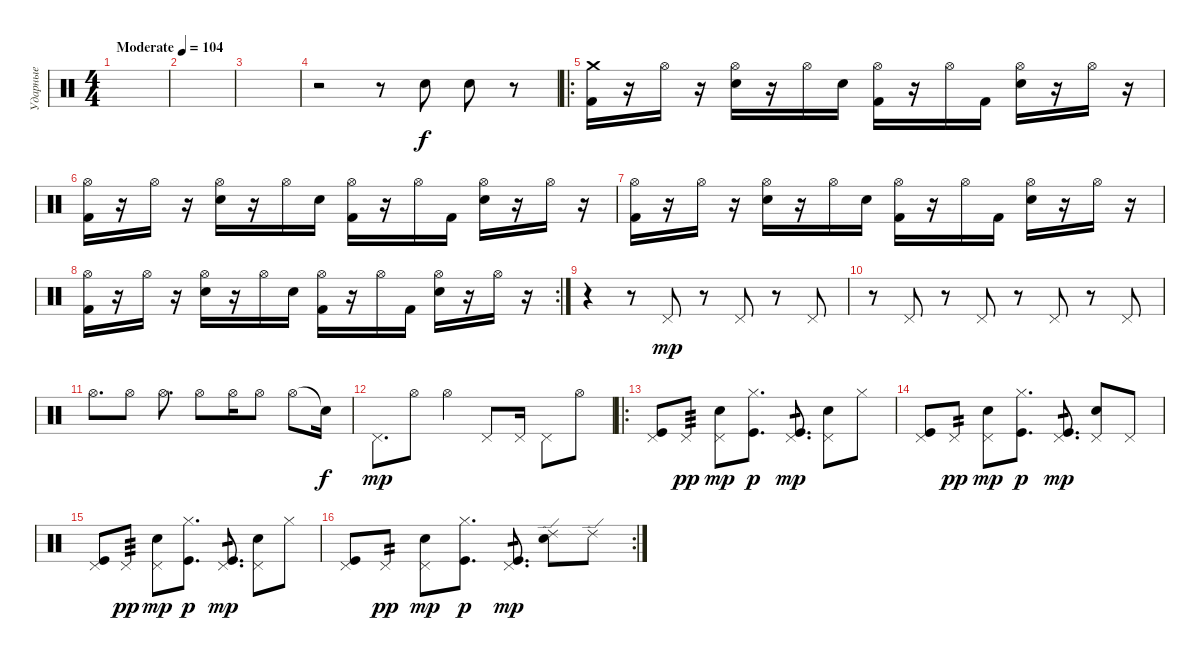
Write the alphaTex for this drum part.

\track ("Ударные" "Ударные") {instrument percussion}
\staff {score}
\articulation defaults
\ts (4 4)
\tempo (104 "Moderate")
\clef neutral
\ks c
|
|
|
r.2 r.8 "Electric Snare (hit)".8 "Electric Snare (hit)".8 r.8 |
\ro
("Crash medium (hit)" "Kick (hit) 2").16 r.16 "Hi-Hat (open)".16 r.16 ("Hi-Hat (open)" "Electric Snare (hit)").16 r.16 "Hi-Hat (open)".16 "Electric Snare (hit)".16 ("Hi-Hat (open)" "Kick (hit) 2").16 r.16 "Hi-Hat (open)".16 "Kick (hit) 2".16 ("Hi-Hat (open)" "Electric Snare (hit)").16 r.16 "Hi-Hat (open)".16 r.16 |
("Hi-Hat (open)" "Kick (hit) 2").16 r.16 "Hi-Hat (open)".16 r.16 ("Hi-Hat (open)" "Electric Snare (hit)").16 r.16 "Hi-Hat (open)".16 "Electric Snare (hit)".16 ("Hi-Hat (open)" "Kick (hit) 2").16 r.16 "Hi-Hat (open)".16 "Kick (hit) 2".16 ("Hi-Hat (open)" "Electric Snare (hit)").16 r.16 "Hi-Hat (open)".16 r.16 |
("Hi-Hat (open)" "Kick (hit) 2").16 r.16 "Hi-Hat (open)".16 r.16 ("Hi-Hat (open)" "Electric Snare (hit)").16 r.16 "Hi-Hat (open)".16 "Electric Snare (hit)".16 ("Hi-Hat (open)" "Kick (hit) 2").16 r.16 "Hi-Hat (open)".16 "Kick (hit) 2".16 ("Hi-Hat (open)" "Electric Snare (hit)").16 r.16 "Hi-Hat (open)".16 r.16 |
\rc 2
("Hi-Hat (open)" "Kick (hit) 2").16 r.16 "Hi-Hat (open)".16 r.16 ("Hi-Hat (open)" "Electric Snare (hit)").16 r.16 "Hi-Hat (open)".16 "Electric Snare (hit)".16 ("Hi-Hat (open)" "Kick (hit) 2").16 r.16 "Hi-Hat (open)".16 "Kick (hit) 2".16 ("Hi-Hat (open)" "Electric Snare (hit)").16 r.16 "Hi-Hat (open)".16 r.16 |
r.4 r.8 "Pedal Hi-Hat (hit)".8{dy mp} r.8 "Pedal Hi-Hat (hit)".8 r.8 "Pedal Hi-Hat (hit)".8 |
r.8 "Pedal Hi-Hat (hit)".8 r.8 "Pedal Hi-Hat (hit)".8 r.8 "Pedal Hi-Hat (hit)".8 r.8 "Pedal Hi-Hat (hit)".8 |
"Hi-Hat (open)".8{d} "Hi-Hat (open)".8 "Hi-Hat (open)".8{d} "Hi-Hat (open)".8 "Hi-Hat (open)".16 "Hi-Hat (open)".8 "Hi-Hat (open)".8 "Snare (hit)"{t}.16{dy f} |
"Pedal Hi-Hat (hit)".8{d dy mp} "Hi-Hat (open)".8 "Hi-Hat (open)".4 "Pedal Hi-Hat (hit)".8 "Pedal Hi-Hat (hit)".16 "Pedal Hi-Hat (hit)".8 "Hi-Hat (open)".8 |
\ro
("Pedal Hi-Hat (hit)" "Kick (hit)").8 "Pedal Hi-Hat (hit)".8{tp 3 dy pp} ("Pedal Hi-Hat (hit)" "Electric Snare (hit)").8{dy mp} ("Hi-Hat (closed)" "Kick (hit)").8{d dy p} ("Pedal Hi-Hat (hit)" "Kick (hit)").8{d tp 1 dy mp} ("Pedal Hi-Hat (hit)" "Electric Snare (hit)").8 "Hi-Hat (closed)".8 |
("Pedal Hi-Hat (hit)" "Kick (hit)").8 "Pedal Hi-Hat (hit)".8{tp 2 dy pp} ("Pedal Hi-Hat (hit)" "Electric Snare (hit)").8{dy mp} ("Hi-Hat (closed)" "Kick (hit)").8{d dy p} ("Pedal Hi-Hat (hit)" "Kick (hit)").8{d tp 1 dy mp} ("Pedal Hi-Hat (hit)" "Electric Snare (hit)").8 "Pedal Hi-Hat (hit)".8 |
("Pedal Hi-Hat (hit)" "Kick (hit)").8 "Pedal Hi-Hat (hit)".8{tp 3 dy pp} ("Pedal Hi-Hat (hit)" "Electric Snare (hit)").8{dy mp} ("Hi-Hat (closed)" "Kick (hit)").8{d dy p} ("Pedal Hi-Hat (hit)" "Kick (hit)").8{d tp 1 dy mp} ("Pedal Hi-Hat (hit)" "Electric Snare (hit)").8 "Hi-Hat (closed)".8 |
\rc 2
("Pedal Hi-Hat (hit)" "Kick (hit)").8 "Pedal Hi-Hat (hit)".8{tp 2 dy pp} ("Pedal Hi-Hat (hit)" "Electric Snare (hit)").8{dy mp} ("Hi-Hat (closed)" "Kick (hit)").8{d dy p} ("Pedal Hi-Hat (hit)" "Kick (hit)").8{d tp 1 dy mp} ("Ride (edge) 2" "Electric Snare (hit)").8 "Ride (edge) 2".8
